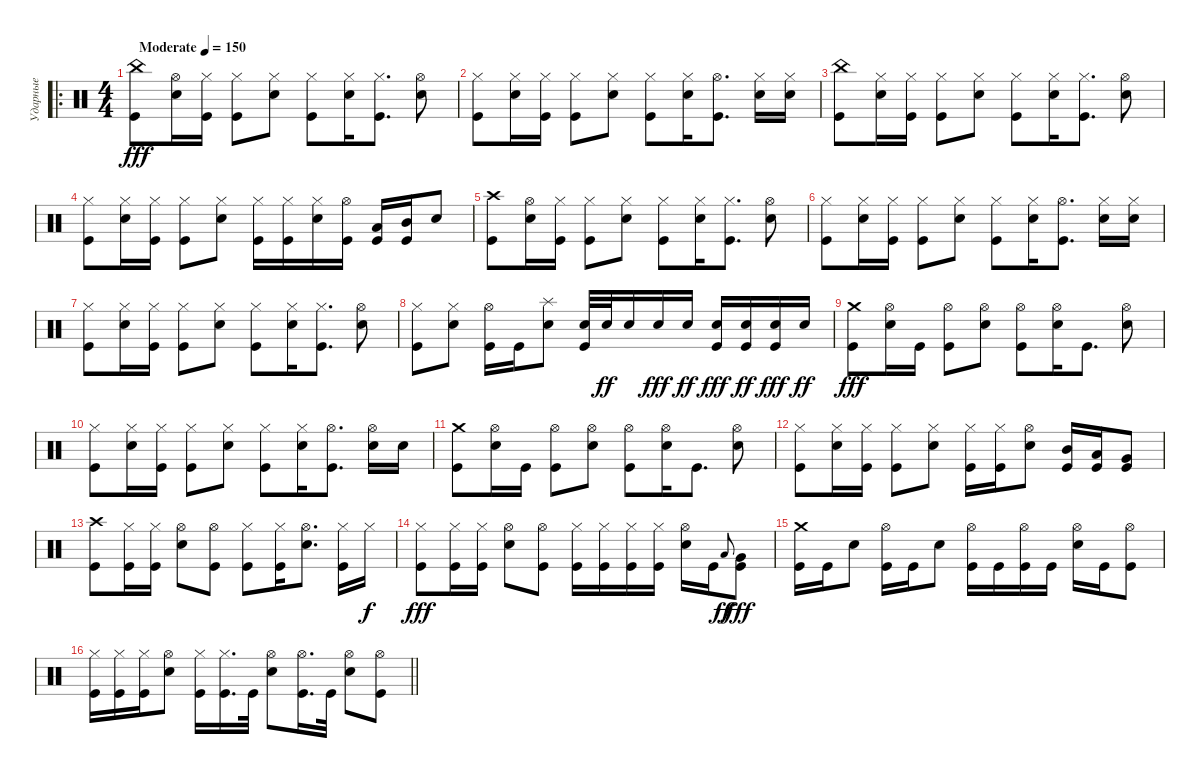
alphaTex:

\track ("Ударные" "Ударные") {instrument percussion}
\staff {score}
\articulation defaults
\ro
\ts (4 4)
\tempo (150 "Moderate")
\clef neutral
\ks c
("China (hit)" "Kick (hit)").8{dy fff} ("Hi-Hat (open)" "Electric Snare (hit)").16 ("Hi-Hat (closed)" "Kick (hit)").16 ("Hi-Hat (closed)" "Kick (hit)").8 ("Hi-Hat (closed)" "Electric Snare (hit)").8 ("Hi-Hat (closed)" "Kick (hit)").8 ("Hi-Hat (closed)" "Electric Snare (hit)").16 ("Hi-Hat (closed)" "Kick (hit)").8{d} ("Hi-Hat (open)" "Electric Snare (hit)").8 |
("Hi-Hat (closed)" "Kick (hit)").8 ("Hi-Hat (closed)" "Electric Snare (hit)").16 ("Hi-Hat (closed)" "Kick (hit)").16 ("Hi-Hat (closed)" "Kick (hit)").8 ("Hi-Hat (closed)" "Electric Snare (hit)").8 ("Hi-Hat (closed)" "Kick (hit)").8 ("Hi-Hat (closed)" "Electric Snare (hit)").16 ("Hi-Hat (open)" "Kick (hit)").8{d} ("Hi-Hat (closed)" "Electric Snare (hit)").16 ("Hi-Hat (closed)" "Electric Snare (hit)").16 |
("China (hit)" "Kick (hit)").8 ("Hi-Hat (closed)" "Electric Snare (hit)").16 ("Hi-Hat (closed)" "Kick (hit)").16 ("Hi-Hat (closed)" "Kick (hit)").8 ("Hi-Hat (closed)" "Electric Snare (hit)").8 ("Hi-Hat (closed)" "Kick (hit)").8 ("Hi-Hat (closed)" "Electric Snare (hit)").16 ("Hi-Hat (closed)" "Kick (hit)").8{d} ("Hi-Hat (open)" "Electric Snare (hit)").8 |
("Hi-Hat (closed)" "Kick (hit)").8 ("Hi-Hat (closed)" "Electric Snare (hit)").16 ("Hi-Hat (closed)" "Kick (hit)").16 ("Hi-Hat (closed)" "Kick (hit)").8 ("Hi-Hat (closed)" "Electric Snare (hit)").8 ("Hi-Hat (closed)" "Kick (hit)").16 ("Hi-Hat (closed)" "Kick (hit)").16 ("Hi-Hat (closed)" "Electric Snare (hit)").16 ("Hi-Hat (open)" "Kick (hit)").16 ("Low Tom (hit)" "Kick (hit)").16 ("Mid Tom (hit)" "Kick (hit)").16 "Electric Snare (hit)".8 |
("Crash high (hit)" "Kick (hit)").8 ("Hi-Hat (open)" "Electric Snare (hit)").16 ("Hi-Hat (closed)" "Kick (hit)").16 ("Hi-Hat (closed)" "Kick (hit)").8 ("Hi-Hat (closed)" "Electric Snare (hit)").8 ("Hi-Hat (closed)" "Kick (hit)").8 ("Hi-Hat (closed)" "Electric Snare (hit)").16 ("Hi-Hat (closed)" "Kick (hit)").8{d} ("Hi-Hat (open)" "Electric Snare (hit)").8 |
("Hi-Hat (closed)" "Kick (hit)").8 ("Hi-Hat (closed)" "Electric Snare (hit)").16 ("Hi-Hat (closed)" "Kick (hit)").16 ("Hi-Hat (closed)" "Kick (hit)").8 ("Hi-Hat (closed)" "Electric Snare (hit)").8 ("Hi-Hat (closed)" "Kick (hit)").8 ("Hi-Hat (closed)" "Electric Snare (hit)").16 ("Hi-Hat (open)" "Kick (hit)").8{d} ("Hi-Hat (closed)" "Electric Snare (hit)").16 ("Hi-Hat (closed)" "Electric Snare (hit)").16 |
("Hi-Hat (closed)" "Kick (hit)").8 ("Hi-Hat (closed)" "Electric Snare (hit)").16 ("Hi-Hat (closed)" "Kick (hit)").16 ("Hi-Hat (closed)" "Kick (hit)").8 ("Hi-Hat (closed)" "Electric Snare (hit)").8 ("Hi-Hat (closed)" "Kick (hit)").8 ("Hi-Hat (closed)" "Electric Snare (hit)").16 ("Hi-Hat (closed)" "Kick (hit)").8{d} ("Hi-Hat (open)" "Electric Snare (hit)").8 |
("Hi-Hat (closed)" "Kick (hit)").8 ("Hi-Hat (closed)" "Electric Snare (hit)").8 ("Hi-Hat (open)" "Kick (hit)").16 "Kick (hit)".16 ("Splash (hit)" "Electric Snare (hit)").8 ("Electric Snare (hit)" "Kick (hit)").32 "Electric Snare (hit)".32{dy ff} "Electric Snare (hit)".16 "Electric Snare (hit)".16{dy fff} "Electric Snare (hit)".16{dy ff} ("Electric Snare (hit)" "Kick (hit)").16{dy fff} ("Electric Snare (hit)" "Kick (hit)").16{dy ff} ("Electric Snare (hit)" "Kick (hit)").16{dy fff} "Electric Snare (hit)".16{dy ff} |
("Crash medium (hit)" "Kick (hit)").8{dy fff} ("Hi-Hat (open)" "Electric Snare (hit)").16 "Kick (hit)".16 ("Hi-Hat (open)" "Kick (hit)").8 ("Hi-Hat (open)" "Electric Snare (hit)").8 ("Hi-Hat (open)" "Kick (hit)").8 ("Hi-Hat (open)" "Electric Snare (hit)").16 "Kick (hit)".8{d} ("Hi-Hat (open)" "Electric Snare (hit)").8 |
("Hi-Hat (closed)" "Kick (hit)").8 ("Hi-Hat (closed)" "Electric Snare (hit)").16 ("Hi-Hat (closed)" "Kick (hit)").16 ("Hi-Hat (closed)" "Kick (hit)").8 ("Hi-Hat (closed)" "Electric Snare (hit)").8 ("Hi-Hat (closed)" "Kick (hit)").8 ("Hi-Hat (closed)" "Electric Snare (hit)").16 ("Hi-Hat (open)" "Kick (hit)").8{d} ("Hi-Hat (open)" "Electric Snare (hit)").16 "Electric Snare (hit)".16 |
("Crash medium (hit)" "Kick (hit)").8 ("Hi-Hat (open)" "Electric Snare (hit)").16 "Kick (hit)".16 ("Hi-Hat (open)" "Kick (hit)").8 ("Hi-Hat (open)" "Electric Snare (hit)").8 ("Hi-Hat (open)" "Kick (hit)").8 ("Hi-Hat (open)" "Electric Snare (hit)").16 "Kick (hit)".8{d} ("Hi-Hat (open)" "Electric Snare (hit)").8 |
("Hi-Hat (closed)" "Kick (hit)").8 ("Hi-Hat (closed)" "Electric Snare (hit)").16 ("Hi-Hat (closed)" "Kick (hit)").16 ("Hi-Hat (closed)" "Kick (hit)").8 ("Hi-Hat (closed)" "Electric Snare (hit)").8 ("Hi-Hat (closed)" "Kick (hit)").16 ("Hi-Hat (closed)" "Kick (hit)").16 ("Hi-Hat (open)" "Electric Snare (hit)").8 ("Mid Tom (hit)" "Kick (hit)").16 ("Low Tom (hit)" "Kick (hit)").16 ("Very Low Tom (hit)" "Kick (hit)").8 |
("Crash high (hit)" "Kick (hit)").8 ("Hi-Hat (closed)" "Kick (hit)").16 ("Hi-Hat (closed)" "Kick (hit)").16 ("Hi-Hat (open)" "Electric Snare (hit)").8 ("Hi-Hat (open)" "Kick (hit)").8 ("Hi-Hat (closed)" "Kick (hit)").8 ("Hi-Hat (closed)" "Kick (hit)").16 ("Hi-Hat (open)" "Electric Snare (hit)").8{d} ("Hi-Hat (closed)" "Kick (hit)").16 "Hi-Hat (closed)".16{dy f} |
("Hi-Hat (closed)" "Kick (hit)").8{dy fff} ("Hi-Hat (closed)" "Kick (hit)").16 ("Hi-Hat (closed)" "Kick (hit)").16 ("Hi-Hat (open)" "Electric Snare (hit)").8 ("Hi-Hat (open)" "Kick (hit)").8 ("Hi-Hat (closed)" "Kick (hit)").16 ("Hi-Hat (closed)" "Kick (hit)").16 ("Hi-Hat (closed)" "Kick (hit)").16 ("Hi-Hat (closed)" "Kick (hit)").16 ("Hi-Hat (open)" "Electric Snare (hit)").16 "Kick (hit)".16 "Low Tom (hit)".8{gr onbeat dy ff} ("Very Low Tom (hit)" "Kick (hit)").8{dy fff} |
("Crash medium (hit)" "Kick (hit)").16 "Kick (hit)".16 "Electric Snare (hit)".8 ("Hi-Hat (open)" "Kick (hit)").16 "Kick (hit)".16 "Electric Snare (hit)".8 ("Hi-Hat (open)" "Kick (hit)").16 "Kick (hit)".16 ("Hi-Hat (open)" "Kick (hit)").16 "Kick (hit)".16 ("Hi-Hat (open)" "Electric Snare (hit)").16 "Kick (hit)".16 ("Hi-Hat (open)" "Kick (hit)").8 |
\barLineRight lightlight
("Hi-Hat (closed)" "Kick (hit)").16 ("Hi-Hat (closed)" "Kick (hit)").16 ("Hi-Hat (closed)" "Kick (hit)").16 ("Hi-Hat (open)" "Electric Snare (hit)").8 ("Hi-Hat (closed)" "Kick (hit)").16 ("Hi-Hat (closed)" "Kick (hit)").16{d} "Kick (hit)".32 ("Hi-Hat (open)" "Electric Snare (hit)").8 ("Hi-Hat (open)" "Kick (hit)").16{d} "Kick (hit)".32 ("Hi-Hat (open)" "Electric Snare (hit)").8 ("Hi-Hat (open)" "Kick (hit)").8
